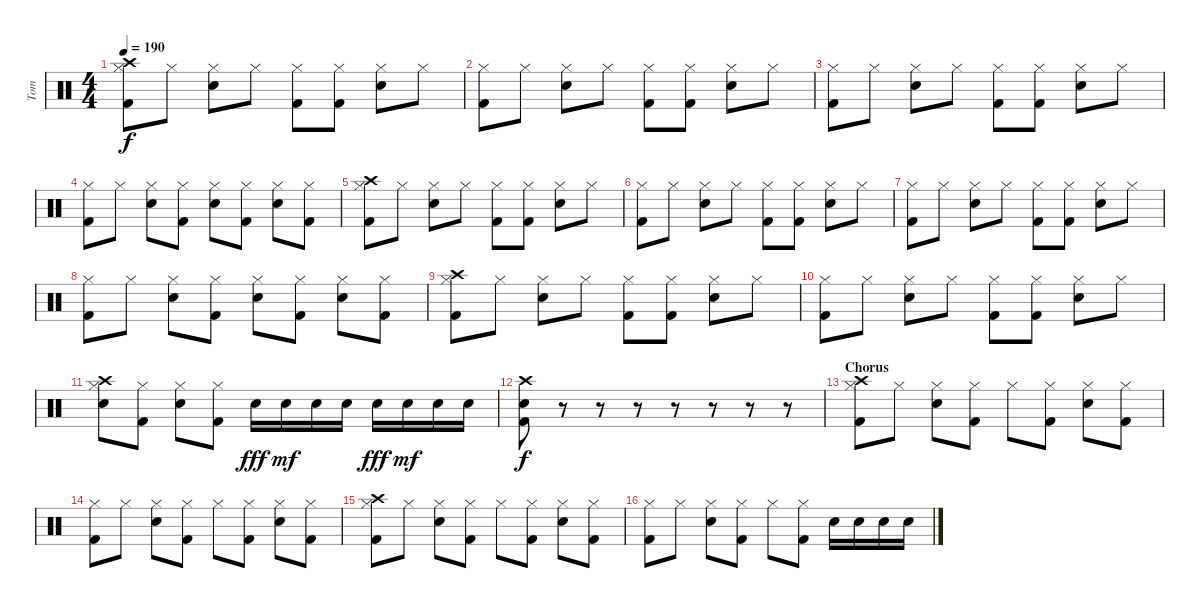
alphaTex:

\track ("Tom" "Tom") {instrument percussion}
\staff {score}
\articulation defaults
\ts (4 4)
\tempo 190
\clef neutral
\ks c
("Crash high (hit)" "Hi-Hat (closed)" "Kick (hit) 2").8{dy f} "Hi-Hat (closed)".8 ("Hi-Hat (closed)" "Electric Snare (hit)").8 "Hi-Hat (closed)".8 ("Hi-Hat (closed)" "Kick (hit) 2").8 ("Hi-Hat (closed)" "Kick (hit) 2").8 ("Hi-Hat (closed)" "Electric Snare (hit)").8 "Hi-Hat (closed)".8 |
("Hi-Hat (closed)" "Kick (hit) 2").8 "Hi-Hat (closed)".8 ("Hi-Hat (closed)" "Electric Snare (hit)").8 "Hi-Hat (closed)".8 ("Hi-Hat (closed)" "Kick (hit) 2").8 ("Hi-Hat (closed)" "Kick (hit) 2").8 ("Hi-Hat (closed)" "Electric Snare (hit)").8 "Hi-Hat (closed)".8 |
("Hi-Hat (closed)" "Kick (hit) 2").8 "Hi-Hat (closed)".8 ("Hi-Hat (closed)" "Electric Snare (hit)").8 "Hi-Hat (closed)".8 ("Hi-Hat (closed)" "Kick (hit) 2").8 ("Hi-Hat (closed)" "Kick (hit) 2").8 ("Hi-Hat (closed)" "Electric Snare (hit)").8 "Hi-Hat (closed)".8 |
("Hi-Hat (closed)" "Kick (hit) 2").8 "Hi-Hat (closed)".8 ("Hi-Hat (closed)" "Electric Snare (hit)").8 ("Hi-Hat (closed)" "Kick (hit) 2").8 ("Hi-Hat (closed)" "Electric Snare (hit)").8 ("Hi-Hat (closed)" "Kick (hit) 2").8 ("Hi-Hat (closed)" "Electric Snare (hit)").8 ("Hi-Hat (closed)" "Kick (hit) 2").8 |
("Crash high (hit)" "Hi-Hat (closed)" "Kick (hit) 2").8 "Hi-Hat (closed)".8 ("Hi-Hat (closed)" "Electric Snare (hit)").8 "Hi-Hat (closed)".8 ("Hi-Hat (closed)" "Kick (hit) 2").8 ("Hi-Hat (closed)" "Kick (hit) 2").8 ("Hi-Hat (closed)" "Electric Snare (hit)").8 "Hi-Hat (closed)".8 |
("Hi-Hat (closed)" "Kick (hit) 2").8 "Hi-Hat (closed)".8 ("Hi-Hat (closed)" "Electric Snare (hit)").8 "Hi-Hat (closed)".8 ("Hi-Hat (closed)" "Kick (hit) 2").8 ("Hi-Hat (closed)" "Kick (hit) 2").8 ("Hi-Hat (closed)" "Electric Snare (hit)").8 "Hi-Hat (closed)".8 |
("Hi-Hat (closed)" "Kick (hit) 2").8 "Hi-Hat (closed)".8 ("Hi-Hat (closed)" "Electric Snare (hit)").8 "Hi-Hat (closed)".8 ("Hi-Hat (closed)" "Kick (hit) 2").8 ("Hi-Hat (closed)" "Kick (hit) 2").8 ("Hi-Hat (closed)" "Electric Snare (hit)").8 "Hi-Hat (closed)".8 |
("Hi-Hat (closed)" "Kick (hit) 2").8 "Hi-Hat (closed)".8 ("Hi-Hat (closed)" "Electric Snare (hit)").8 ("Hi-Hat (closed)" "Kick (hit) 2").8 ("Hi-Hat (closed)" "Electric Snare (hit)").8 ("Hi-Hat (closed)" "Kick (hit) 2").8 ("Hi-Hat (closed)" "Electric Snare (hit)").8 ("Hi-Hat (closed)" "Kick (hit) 2").8 |
("Crash high (hit)" "Hi-Hat (closed)" "Kick (hit) 2").8 "Hi-Hat (closed)".8 ("Hi-Hat (closed)" "Electric Snare (hit)").8 "Hi-Hat (closed)".8 ("Hi-Hat (closed)" "Kick (hit) 2").8 ("Hi-Hat (closed)" "Kick (hit) 2").8 ("Hi-Hat (closed)" "Electric Snare (hit)").8 "Hi-Hat (closed)".8 |
("Hi-Hat (closed)" "Kick (hit) 2").8 "Hi-Hat (closed)".8 ("Hi-Hat (closed)" "Electric Snare (hit)").8 "Hi-Hat (closed)".8 ("Hi-Hat (closed)" "Kick (hit) 2").8 ("Hi-Hat (closed)" "Kick (hit) 2").8 ("Hi-Hat (closed)" "Electric Snare (hit)").8 "Hi-Hat (closed)".8 |
("Crash high (hit)" "Hi-Hat (closed)" "Electric Snare (hit)").8 ("Hi-Hat (closed)" "Kick (hit) 2").8 ("Hi-Hat (closed)" "Electric Snare (hit)").8 ("Hi-Hat (closed)" "Kick (hit) 2").8 "Electric Snare (hit)".16{dy fff} "Electric Snare (hit)".16{dy mf} "Electric Snare (hit)".16 "Electric Snare (hit)".16 "Electric Snare (hit)".16{dy fff} "Electric Snare (hit)".16{dy mf} "Electric Snare (hit)".16 "Electric Snare (hit)".16 |
("Crash high (hit)" "Electric Snare (hit)" "Kick (hit) 2").8{dy f} r.8 r.8 r.8 r.8 r.8 r.8 r.8 |
\section ("" "Chorus")
("Crash high (hit)" "Hi-Hat (closed)" "Kick (hit) 2").8 "Hi-Hat (closed)".8 ("Hi-Hat (closed)" "Electric Snare (hit)").8 ("Hi-Hat (closed)" "Kick (hit) 2").8 "Hi-Hat (closed)".8 ("Hi-Hat (closed)" "Kick (hit) 2").8 ("Hi-Hat (closed)" "Electric Snare (hit)").8 ("Hi-Hat (closed)" "Kick (hit) 2").8 |
("Hi-Hat (closed)" "Kick (hit) 2").8 "Hi-Hat (closed)".8 ("Hi-Hat (closed)" "Electric Snare (hit)").8 ("Hi-Hat (closed)" "Kick (hit) 2").8 "Hi-Hat (closed)".8 ("Hi-Hat (closed)" "Kick (hit) 2").8 ("Hi-Hat (closed)" "Electric Snare (hit)").8 ("Hi-Hat (closed)" "Kick (hit) 2").8 |
("Crash high (hit)" "Hi-Hat (closed)" "Kick (hit) 2").8 "Hi-Hat (closed)".8 ("Hi-Hat (closed)" "Electric Snare (hit)").8 ("Hi-Hat (closed)" "Kick (hit) 2").8 "Hi-Hat (closed)".8 ("Hi-Hat (closed)" "Kick (hit) 2").8 ("Hi-Hat (closed)" "Electric Snare (hit)").8 ("Hi-Hat (closed)" "Kick (hit) 2").8 |
("Hi-Hat (closed)" "Kick (hit) 2").8 "Hi-Hat (closed)".8 ("Hi-Hat (closed)" "Electric Snare (hit)").8 ("Hi-Hat (closed)" "Kick (hit) 2").8 "Hi-Hat (closed)".8 ("Hi-Hat (closed)" "Kick (hit) 2").8 "Electric Snare (hit)".16 "Electric Snare (hit)".16 "Electric Snare (hit)".16 "Electric Snare (hit)".16
